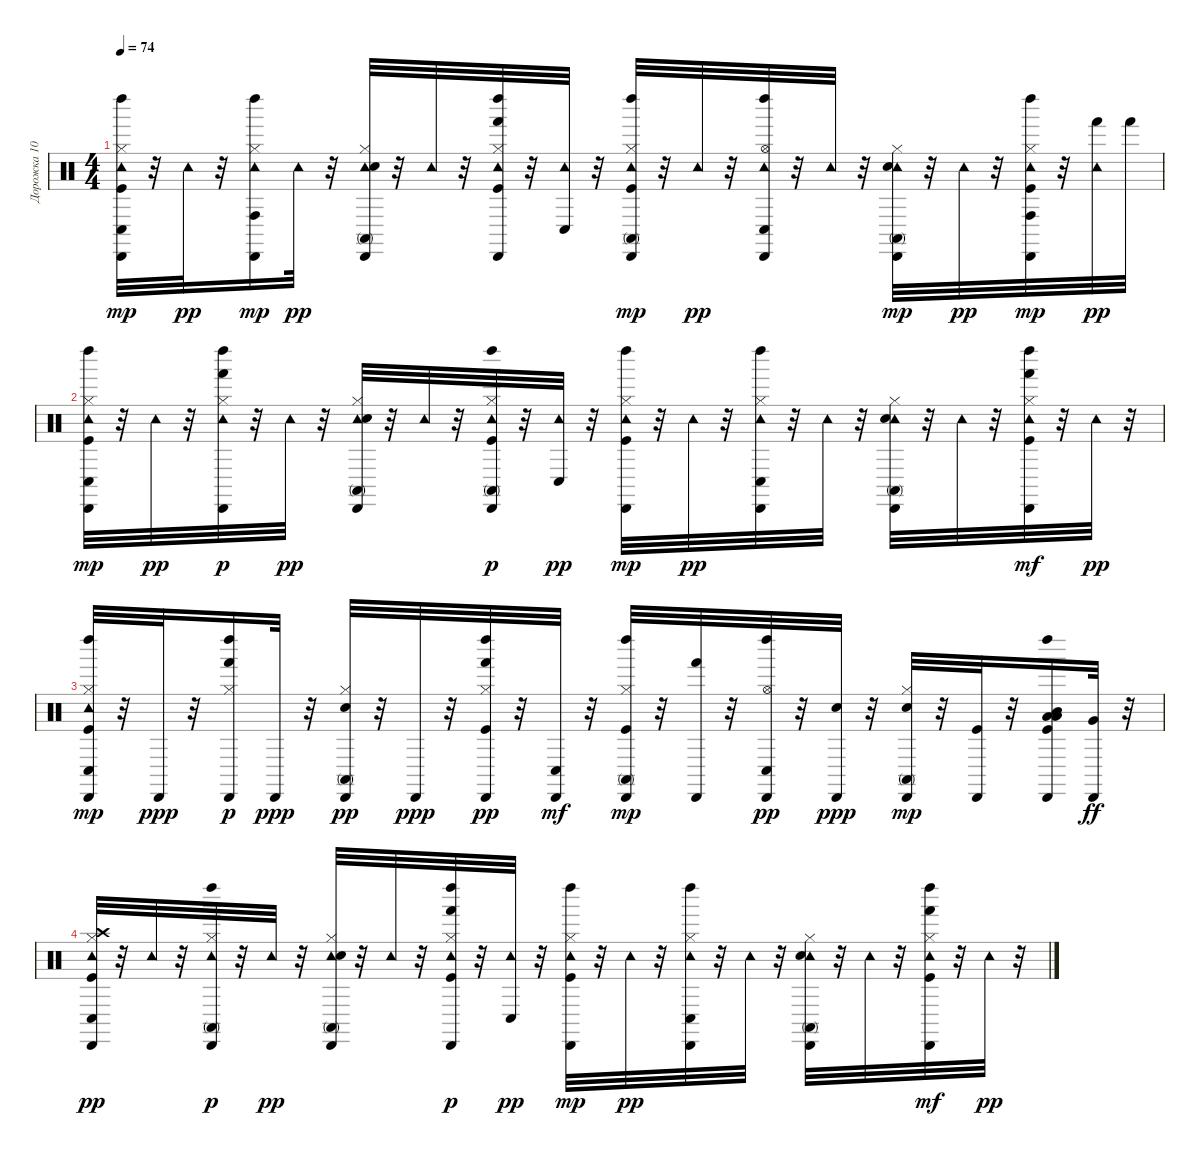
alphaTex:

\track ("Дорожка 10" "Дорожка 10") {instrument percussion}
\staff {score}
\articulation defaults
\ts (4 4)
\tempo 74
\clef neutral
\ks c
("Conga low (hit)" "Tambourine (hit)" "Kick (hit)" "Hi-Hat (closed)" "Cabasa (hit)" "Left Maraca (hit)").32{dy mp} r.32 "Tambourine (hit)".32{dy pp} r.32 ("Hi-Hat (closed)" "Tambourine (hit)" "Cabasa (hit)" "Left Maraca (hit)" "Conga high (hit)").16{dy mp} "Tambourine (hit)".32{dy pp} r.32 ("Conga high (mute)" "Tambourine (hit)" "Electric Snare (hit)" "Hi-Hat (closed)" "Cabasa (hit)").32 r.32 "Tambourine (hit)".32 r.32 ("Hand (hit)" "Kick (hit)" "Hi-Hat (closed)" "Tambourine (hit)" "Cabasa (hit)" "Left Maraca (hit)").32 r.32 ("Conga low (hit)" "Tambourine (hit)").32 r.32 ("Kick (hit)" "Hi-Hat (closed)" "Tambourine (hit)" "Conga high (mute)" "Cabasa (hit)" "Left Maraca (hit)").32{dy mp} r.32 "Tambourine (hit)".32{dy pp} r.32 ("Conga low (hit)" "Hi-Hat (open)" "Tambourine (hit)" "Cabasa (hit)" "Left Maraca (hit)").32 r.32 "Tambourine (hit)".32 r.32 ("Tambourine (hit)" "Electric Snare (hit)" "Hi-Hat (closed)" "Cabasa (hit)" "Conga high (mute)").32{dy mp} r.32 "Tambourine (hit)".32{dy pp} r.32 ("Kick (hit)" "Hi-Hat (closed)" "Tambourine (hit)" "Cabasa (hit)" "Left Maraca (hit)" "Conga high (hit)").32{dy mp} r.32 ("Hand (hit)" "Tambourine (hit)").32{dy pp} "Hand (hit)".32 |
("Conga low (hit)" "Tambourine (hit)" "Kick (hit)" "Hi-Hat (closed)" "Cabasa (hit)" "Left Maraca (hit)").32{dy mp} r.32 "Tambourine (hit)".32{dy pp} r.32 ("Hi-Hat (closed)" "Tambourine (hit)" "Cabasa (hit)" "Left Maraca (hit)" "Hand (hit)").32{dy p} r.32 "Tambourine (hit)".32{dy pp} r.32 ("Tambourine (hit)" "Electric Snare (hit)" "Hi-Hat (closed)" "Conga high (mute)" "Cabasa (hit)").32 r.32 "Tambourine (hit)".32 r.32 ("Kick (hit)" "Hi-Hat (closed)" "Tambourine (hit)" "Cabasa (hit)" "Left Maraca (hit)" "Conga high (mute)").32{dy p} r.32 ("Conga low (hit)" "Tambourine (hit)").32{dy pp} r.32 ("Kick (hit)" "Hi-Hat (closed)" "Tambourine (hit)" "Cabasa (hit)" "Left Maraca (hit)").32{dy mp} r.32 "Tambourine (hit)".32{dy pp} r.32 ("Conga low (hit)" "Hi-Hat (closed)" "Tambourine (hit)" "Cabasa (hit)" "Left Maraca (hit)").32 r.32 "Tambourine (hit)".32 r.32 ("Conga high (mute)" "Tambourine (hit)" "Electric Snare (hit)" "Hi-Hat (closed)" "Cabasa (hit)").32 r.32 "Tambourine (hit)".32 r.32 ("Kick (hit)" "Hi-Hat (closed)" "Tambourine (hit)" "Cabasa (hit)" "Left Maraca (hit)" "Hand (hit)").32{dy mf} r.32 "Tambourine (hit)".32{dy pp} r.32 |
("Conga low (hit)" "Tambourine (hit)" "Kick (hit)" "Hi-Hat (closed)" "Cabasa (hit)" "Left Maraca (hit)").32{dy mp} r.32 "Cabasa (hit)".32{dy ppp} r.32 ("Hi-Hat (closed)" "Cabasa (hit)" "Left Maraca (hit)" "Hand (hit)").16{dy p} "Cabasa (hit)".32{dy ppp} r.32 ("Electric Snare (hit)" "Hi-Hat (closed)" "Conga high (mute)" "Cabasa (hit)").32{dy pp} r.32 "Cabasa (hit)".32{dy ppp} r.32 ("Kick (hit)" "Hi-Hat (closed)" "Cabasa (hit)" "Left Maraca (hit)" "Hand (hit)").32{dy pp} r.32 ("Cabasa (hit)" "Conga low (hit)").32{dy mf} r.32 ("Kick (hit)" "Hi-Hat (closed)" "Conga high (mute)" "Cabasa (hit)" "Left Maraca (hit)").32{dy mp} r.32 ("Cabasa (hit)" "Hand (hit)").32 r.32 ("Conga low (hit)" "Hi-Hat (open)" "Cabasa (hit)" "Left Maraca (hit)").32{dy pp} r.32 ("Cabasa (hit)" "Electric Snare (hit)").32{dy ppp} r.32 ("Electric Snare (hit)" "Hi-Hat (closed)" "Cabasa (hit)" "Conga high (mute)").32{dy mp} r.32 ("Cabasa (hit)" "Kick (hit)").32 r.32 ("Low Tom (hit)" "Kick (hit)" "Cabasa (hit)" "Left Maraca (hit)" "Mid Tom (hit)" "Low Tom (hit)").16 ("Cabasa (hit)" "Very Low Tom (hit)").32{dy ff} r.32 |
("Conga low (hit)" "Crash high (hit)" "Tambourine (hit)" "Kick (hit)" "Hi-Hat (closed)" "Cabasa (hit)").32{dy pp} r.32 "Tambourine (hit)".32 r.32 ("Hi-Hat (closed)" "Tambourine (hit)" "Cabasa (hit)" "Left Maraca (hit)" "Conga high (mute)").32{dy p} r.32 "Tambourine (hit)".32{dy pp} r.32 ("Tambourine (hit)" "Electric Snare (hit)" "Hi-Hat (closed)" "Conga high (mute)" "Cabasa (hit)").32 r.32 "Tambourine (hit)".32 r.32 ("Kick (hit)" "Hi-Hat (closed)" "Tambourine (hit)" "Cabasa (hit)" "Left Maraca (hit)" "Hand (hit)").32{dy p} r.32 ("Conga low (hit)" "Tambourine (hit)").32{dy pp} r.32 ("Kick (hit)" "Hi-Hat (closed)" "Tambourine (hit)" "Cabasa (hit)" "Left Maraca (hit)").32{dy mp} r.32 "Tambourine (hit)".32{dy pp} r.32 ("Conga low (hit)" "Hi-Hat (closed)" "Tambourine (hit)" "Cabasa (hit)" "Left Maraca (hit)").32 r.32 "Tambourine (hit)".32 r.32 ("Conga high (mute)" "Tambourine (hit)" "Electric Snare (hit)" "Hi-Hat (closed)" "Cabasa (hit)").32 r.32 "Tambourine (hit)".32 r.32 ("Kick (hit)" "Hi-Hat (closed)" "Tambourine (hit)" "Cabasa (hit)" "Left Maraca (hit)" "Hand (hit)").32{dy mf} r.32 "Tambourine (hit)".32{dy pp} r.32
